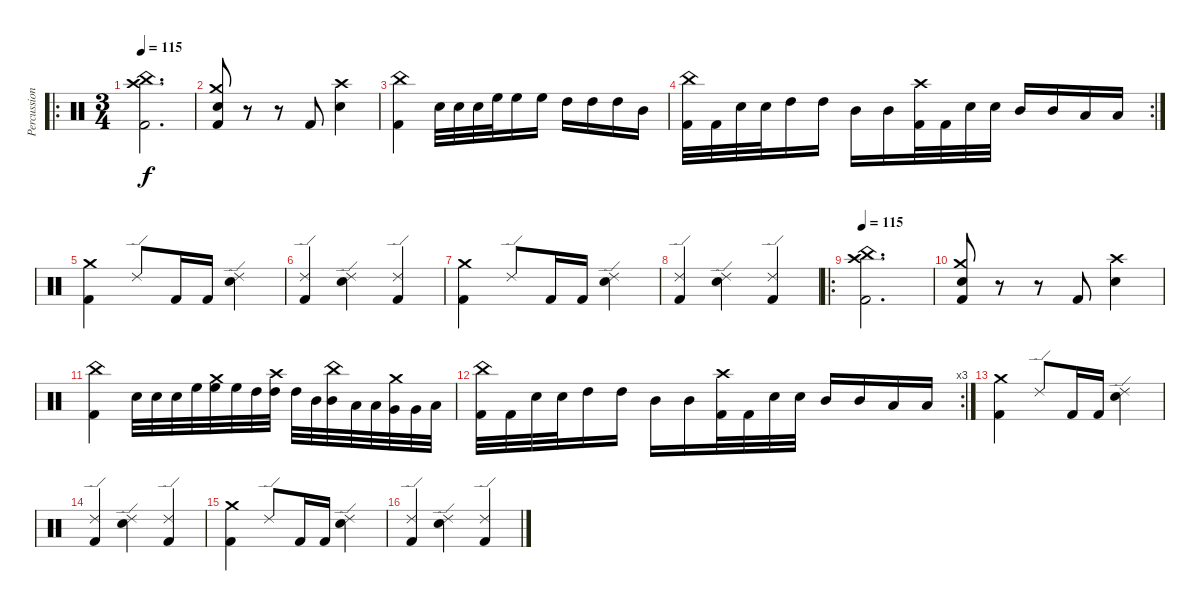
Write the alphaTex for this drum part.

\track ("Percussion" "Percussion") {instrument percussion}
\staff {score}
\articulation defaults
\ro
\ts (3 4)
\tempo 115
\clef neutral
\ks c
("China (hit)" "Crash high (hit)" "Kick (hit) 2").2{d dy f} |
("Crash medium (hit)" "Electric Snare (hit)" "Kick (hit) 2").8 r.8 r.8 "Kick (hit) 2".8 ("Crash high (hit)" "Electric Snare (hit)").4 |
("China (hit)" "Kick (hit) 2").4 "Electric Snare (hit)".32 "Electric Snare (hit)".32 "Electric Snare (hit)".32 "High Floor Tom (hit)".32 "High Floor Tom (hit)".16 "High Floor Tom (hit)".16 "High Tom (hit)".16 "High Tom (hit)".16 "High Tom (hit)".16 "Mid Tom (hit)".16 |
\rc 2
("China (hit)" "Kick (hit) 2").32 "Kick (hit) 2".32 "Electric Snare (hit)".32 "Electric Snare (hit)".32 "High Tom (hit)".16 "High Tom (hit)".16 "Mid Tom (hit)".16 "Mid Tom (hit)".16 ("Crash high (hit)" "Kick (hit) 2").32 "Kick (hit) 2".32 "Electric Snare (hit)".32 "Electric Snare (hit)".32 "Mid Tom (hit)".16 "Mid Tom (hit)".16 "Low Tom (hit)".16 "Low Tom (hit)".16 |
("Crash medium (hit)" "Kick (hit) 2").4 "Ride (edge) 2".8 "Kick (hit) 2".16 "Kick (hit) 2".16 ("Ride (edge) 2" "Electric Snare (hit)").4 |
("Ride (edge) 2" "Kick (hit) 2").4 ("Ride (edge) 2" "Electric Snare (hit)").4 ("Ride (edge) 2" "Kick (hit) 2").4 |
("Crash medium (hit)" "Kick (hit) 2").4 "Ride (edge) 2".8 "Kick (hit) 2".16 "Kick (hit) 2".16 ("Ride (edge) 2" "Electric Snare (hit)").4 |
("Ride (edge) 2" "Kick (hit) 2").4 ("Ride (edge) 2" "Electric Snare (hit)").4 ("Ride (edge) 2" "Kick (hit) 2").4 |
\ro
\tempo 115
("China (hit)" "Crash high (hit)" "Kick (hit) 2").2{d} |
("Crash medium (hit)" "Electric Snare (hit)" "Kick (hit) 2").8 r.8 r.8 "Kick (hit) 2".8 ("Crash high (hit)" "Electric Snare (hit)").4 |
("China (hit)" "Kick (hit) 2").4 "Electric Snare (hit)".32 "Electric Snare (hit)".32 "Electric Snare (hit)".32 "High Floor Tom (hit)".32 ("Crash medium (hit)" "High Floor Tom (hit)").32 "High Floor Tom (hit)".32 "High Tom (hit)".32 ("Crash high (hit)" "High Tom (hit)").32 "High Tom (hit)".32 "Mid Tom (hit)".32 ("China (hit)" "Mid Tom (hit)").32 "Low Tom (hit)".32 "Low Tom (hit)".32 ("Crash medium (hit)" "Very Low Tom (hit)").32 "Very Low Tom (hit)".32 "Low Floor Tom (hit)".32 |
\rc 3
("China (hit)" "Kick (hit) 2").32 "Kick (hit) 2".32 "Electric Snare (hit)".32 "Electric Snare (hit)".32 "High Tom (hit)".16 "High Tom (hit)".16 "Mid Tom (hit)".16 "Mid Tom (hit)".16 ("Crash high (hit)" "Kick (hit) 2").32 "Kick (hit) 2".32 "Electric Snare (hit)".32 "Electric Snare (hit)".32 "Mid Tom (hit)".16 "Mid Tom (hit)".16 "Low Tom (hit)".16 "Low Tom (hit)".16 |
("Crash medium (hit)" "Kick (hit) 2").4 "Ride (edge) 2".8 "Kick (hit) 2".16 "Kick (hit) 2".16 ("Ride (edge) 2" "Electric Snare (hit)").4 |
("Ride (edge) 2" "Kick (hit) 2").4 ("Ride (edge) 2" "Electric Snare (hit)").4 ("Ride (edge) 2" "Kick (hit) 2").4 |
("Crash medium (hit)" "Kick (hit) 2").4 "Ride (edge) 2".8 "Kick (hit) 2".16 "Kick (hit) 2".16 ("Ride (edge) 2" "Electric Snare (hit)").4 |
("Ride (edge) 2" "Kick (hit) 2").4 ("Ride (edge) 2" "Electric Snare (hit)").4 ("Ride (edge) 2" "Kick (hit) 2").4
